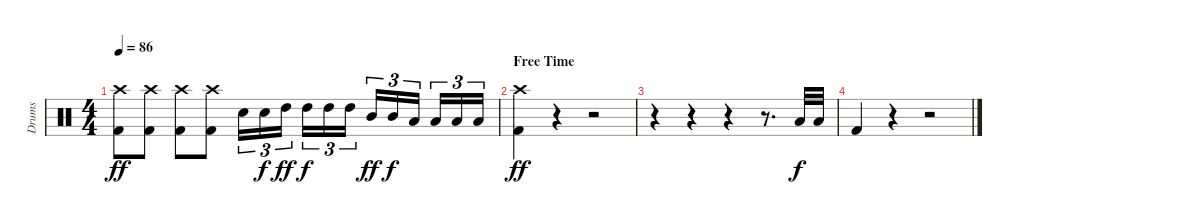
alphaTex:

\track ("Drums" "Drums") {instrument percussion}
\staff {score}
\articulation defaults
\ts (4 4)
\tempo 86
\clef neutral
\ks c
("Crash high (hit)" "Kick (hit) 2").8{dy ff} ("Crash high (hit)" "Kick (hit) 2").8 ("Crash high (hit)" "Kick (hit) 2").8 ("Crash high (hit)" "Kick (hit) 2").8 "Electric Snare (hit)".16{tu (3 2)} "Electric Snare (hit)".16{tu (3 2) dy f} "High Tom (hit)".16{tu (3 2) dy ff} "High Tom (hit)".16{tu (3 2) dy f} "High Tom (hit)".16{tu (3 2)} "High Tom (hit)".16{tu (3 2)} "Mid Tom (hit)".16{tu (3 2) dy ff} "Mid Tom (hit)".16{tu (3 2) dy f} "Low Tom (hit)".16{tu (3 2)} "Low Tom (hit)".16{tu (3 2)} "Low Tom (hit)".16{tu (3 2)} "Low Tom (hit)".16{tu (3 2)} |
\section ("" "Free Time")
("Crash high (hit)" "Kick (hit) 2").4{dy ff} r.4 r.2 |
r.4 r.4 r.4 r.8{d} "Low Tom (hit)".32{dy f} "Low Tom (hit)".32 |
"Kick (hit) 2".4 r.4 r.2
